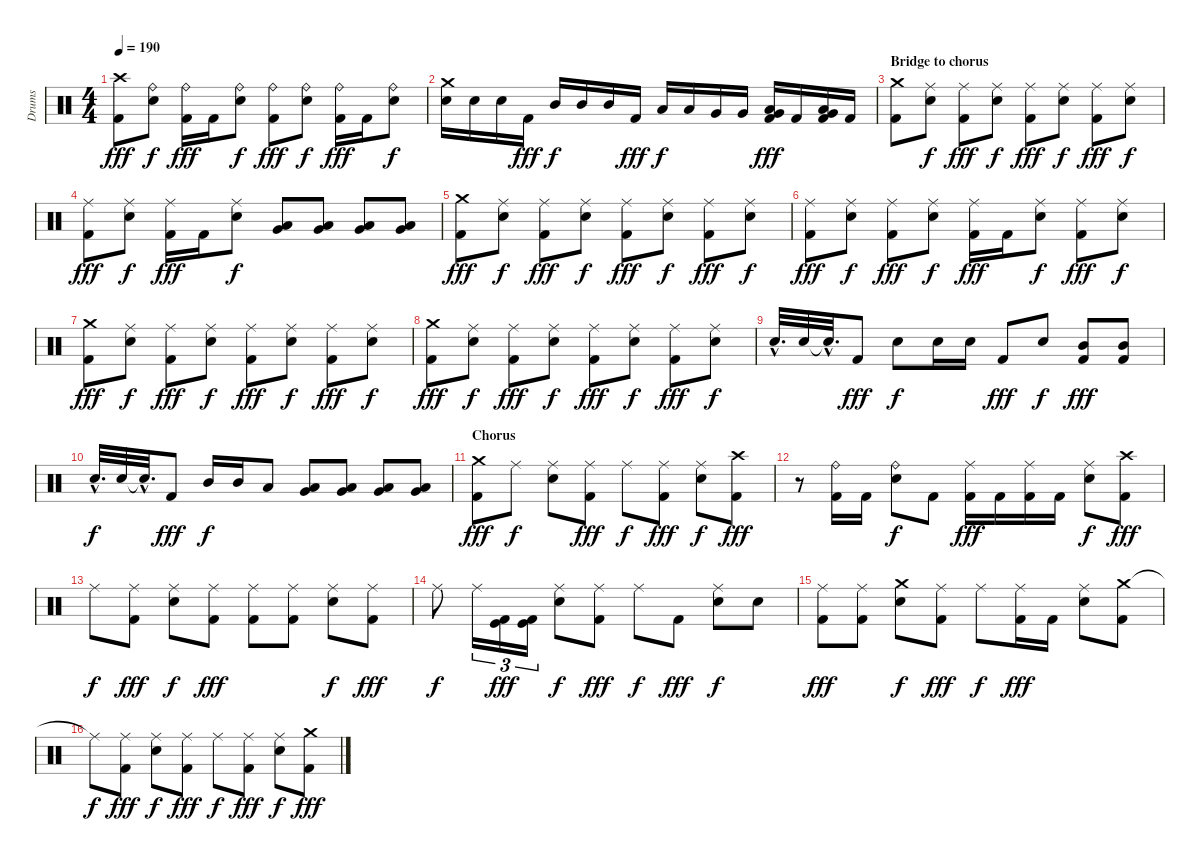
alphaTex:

\track ("Drums" "Drums") {instrument percussion}
\staff {score}
\articulation defaults
\ts (4 4)
\tempo 190
\clef neutral
\ks c
("Crash high (hit)" "Kick (hit) 2").8{dy fff} ("Ride (bell)" "Snare (hit) 2").8{dy f} ("Ride (bell)" "Kick (hit) 2").16{dy fff} "Kick (hit) 2".16 ("Ride (bell)" "Snare (hit) 2").8{dy f} ("Ride (bell)" "Kick (hit) 2").8{dy fff} ("Ride (bell)" "Snare (hit) 2").8{dy f} ("Ride (bell)" "Kick (hit) 2").16{dy fff} "Kick (hit) 2".16 ("Ride (bell)" "Snare (hit) 2").8{dy f} |
("Crash medium (hit)" "Snare (hit) 2").16 "Snare (hit) 2".16 "Snare (hit) 2".16 "Kick (hit) 2".16{dy fff} "Mid Tom (hit)".16{dy f} "Mid Tom (hit)".16 "Mid Tom (hit)".16 "Kick (hit) 2".16{dy fff} "Low Tom (hit)".16{dy f} "Low Tom (hit)".16 "Very Low Tom (hit)".16 "Very Low Tom (hit)".16 ("Very Low Tom (hit)" "Low Floor Tom (hit)" "Kick (hit) 2").16{dy fff} "Kick (hit) 2".16 ("Very Low Tom (hit)" "Low Floor Tom (hit)" "Kick (hit) 2").16 "Kick (hit) 2".16 |
\section ("" "Bridge to chorus")
("Crash medium (hit)" "Kick (hit) 2").8 ("Ride (middle)" "Snare (hit) 2").8{dy f} ("Ride (middle)" "Kick (hit) 2").8{dy fff} ("Ride (middle)" "Snare (hit) 2").8{dy f} ("Ride (middle)" "Kick (hit) 2").8{dy fff} ("Ride (middle)" "Snare (hit) 2").8{dy f} ("Ride (middle)" "Kick (hit) 2").8{dy fff} ("Ride (middle)" "Snare (hit) 2").8{dy f} |
("Ride (middle)" "Kick (hit) 2").8{dy fff} ("Ride (middle)" "Snare (hit) 2").8{dy f} ("Ride (middle)" "Kick (hit) 2").16{dy fff} "Kick (hit) 2".16 ("Ride (middle)" "Snare (hit) 2").8{dy f} ("Low Tom (hit)" "Very Low Tom (hit)").8 ("Low Tom (hit)" "Very Low Tom (hit)").8 ("Very Low Tom (hit)" "Low Floor Tom (hit)").8 ("Very Low Tom (hit)" "Low Floor Tom (hit)").8 |
("Crash medium (hit)" "Kick (hit) 2").8{dy fff} ("Ride (middle)" "Snare (hit) 2").8{dy f} ("Ride (middle)" "Kick (hit) 2").8{dy fff} ("Ride (middle)" "Snare (hit) 2").8{dy f} ("Ride (middle)" "Kick (hit) 2").8{dy fff} ("Ride (middle)" "Snare (hit) 2").8{dy f} ("Ride (middle)" "Kick (hit) 2").8{dy fff} ("Ride (middle)" "Snare (hit) 2").8{dy f} |
("Ride (middle)" "Kick (hit) 2").8{dy fff} ("Ride (middle)" "Snare (hit) 2").8{dy f} ("Ride (middle)" "Kick (hit) 2").8{dy fff} ("Ride (middle)" "Snare (hit) 2").8{dy f} ("Ride (middle)" "Kick (hit) 2").16{dy fff} "Kick (hit) 2".16 ("Ride (middle)" "Snare (hit) 2").8{dy f} ("Ride (middle)" "Kick (hit) 2").8{dy fff} ("Ride (middle)" "Snare (hit) 2").8{dy f} |
("Crash medium (hit)" "Kick (hit) 2").8{dy fff} ("Ride (middle)" "Snare (hit) 2").8{dy f} ("Ride (middle)" "Kick (hit) 2").8{dy fff} ("Ride (middle)" "Snare (hit) 2").8{dy f} ("Ride (middle)" "Kick (hit) 2").8{dy fff} ("Ride (middle)" "Snare (hit) 2").8{dy f} ("Ride (middle)" "Kick (hit) 2").8{dy fff} ("Ride (middle)" "Snare (hit) 2").8{dy f} |
("Crash medium (hit)" "Kick (hit) 2").8{dy fff} ("Ride (middle)" "Snare (hit) 2").8{dy f} ("Ride (middle)" "Kick (hit) 2").8{dy fff} ("Ride (middle)" "Snare (hit) 2").8{dy f} ("Ride (middle)" "Kick (hit) 2").8{dy fff} ("Ride (middle)" "Snare (hit) 2").8{dy f} ("Ride (middle)" "Kick (hit) 2").8{dy fff} ("Ride (middle)" "Snare (hit) 2").8{dy f} |
"Snare (hit) 2"{hac}.32{d} "Snare (hit) 2".32 "Snare (hit)"{hac t}.32{d} "Kick (hit) 2".8{dy fff} "Snare (hit) 2".8{dy f} "Snare (hit) 2".16 "Snare (hit) 2".16 "Kick (hit) 2".8{dy fff} "Snare (hit) 2".8{dy f} ("Mid Tom (hit)" "Kick (hit) 2").8{dy fff} ("Mid Tom (hit)" "Kick (hit) 2").8 |
"Snare (hit) 2"{hac}.32{d dy f} "Snare (hit) 2".32 "Snare (hit)"{hac t}.32{d} "Kick (hit) 2".8{dy fff} "Mid Tom (hit)".16{dy f} "Mid Tom (hit)".16 "Low Tom (hit)".8 ("Very Low Tom (hit)" "Low Floor Tom (hit)").8 ("Very Low Tom (hit)" "Low Floor Tom (hit)").8 ("Low Tom (hit)" "Very Low Tom (hit)").8 ("Low Tom (hit)" "Very Low Tom (hit)").8 |
\section ("" "Chorus")
("Crash medium (hit)" "Kick (hit) 2").8{dy fff} "Ride (middle)".8{dy f} ("Ride (middle)" "Snare (hit) 2").8 ("Ride (middle)" "Kick (hit) 2").8{dy fff} "Ride (middle)".8{dy f} ("Ride (middle)" "Kick (hit) 2").8{dy fff} ("Ride (middle)" "Snare (hit) 2").8{dy f} ("Crash high (hit)" "Kick (hit) 2").8{dy fff} |
r.8 ("Ride (bell)" "Kick (hit) 2").16 "Kick (hit) 2".16 ("Ride (bell)" "Snare (hit) 2").8{dy f} "Kick (hit) 2".8 ("Ride (middle)" "Kick (hit) 2").16{dy fff} "Kick (hit) 2".16 ("Ride (middle)" "Kick (hit) 2").16 "Kick (hit) 2".16 ("Ride (middle)" "Snare (hit) 2").8{dy f} ("Crash high (hit)" "Kick (hit) 2").8{dy fff} |
"Ride (middle)".8{dy f} ("Ride (middle)" "Kick (hit) 2").8{dy fff} ("Ride (middle)" "Snare (hit) 2").8{dy f} ("Ride (middle)" "Kick (hit) 2").8{dy fff} ("Ride (middle)" "Kick (hit) 2").8 ("Ride (middle)" "Kick (hit) 2").8 ("Ride (middle)" "Snare (hit) 2").8{dy f} ("Ride (middle)" "Kick (hit) 2").8{dy fff} |
"Ride (middle)".8{dy f} "Ride (middle)".16{tu (3 2)} ("Kick (hit)" "Kick (hit) 2").16{tu (3 2) dy fff} ("Kick (hit)" "Kick (hit) 2").16{tu (3 2)} ("Ride (middle)" "Snare (hit) 2").8{dy f} ("Ride (middle)" "Kick (hit) 2").8{dy fff} "Ride (middle)".8{dy f} "Kick (hit) 2".8{dy fff} ("Ride (middle)" "Snare (hit) 2").8{dy f} "Snare (hit) 2".8 |
("Ride (middle)" "Kick (hit) 2").8{dy fff} ("Ride (middle)" "Kick (hit) 2").8 ("Crash medium (hit)" "Snare (hit) 2").8{dy f} ("Ride (middle)" "Kick (hit) 2").8{dy fff} "Ride (middle)".8{dy f} ("Ride (middle)" "Kick (hit) 2").16{dy fff} "Kick (hit) 2".16 ("Ride (middle)" "Snare (hit) 2").8 ("Crash medium (hit)" "Kick (hit) 2").8 |
"Ride (middle)"{t}.8{dy f} ("Ride (middle)" "Kick (hit) 2").8{dy fff} ("Ride (middle)" "Snare (hit) 2").8{dy f} ("Ride (middle)" "Kick (hit) 2").8{dy fff} "Ride (middle)".8{dy f} ("Ride (middle)" "Kick (hit) 2").8{dy fff} ("Ride (middle)" "Snare (hit) 2").8{dy f} ("Crash medium (hit)" "Kick (hit) 2").8{dy fff}
